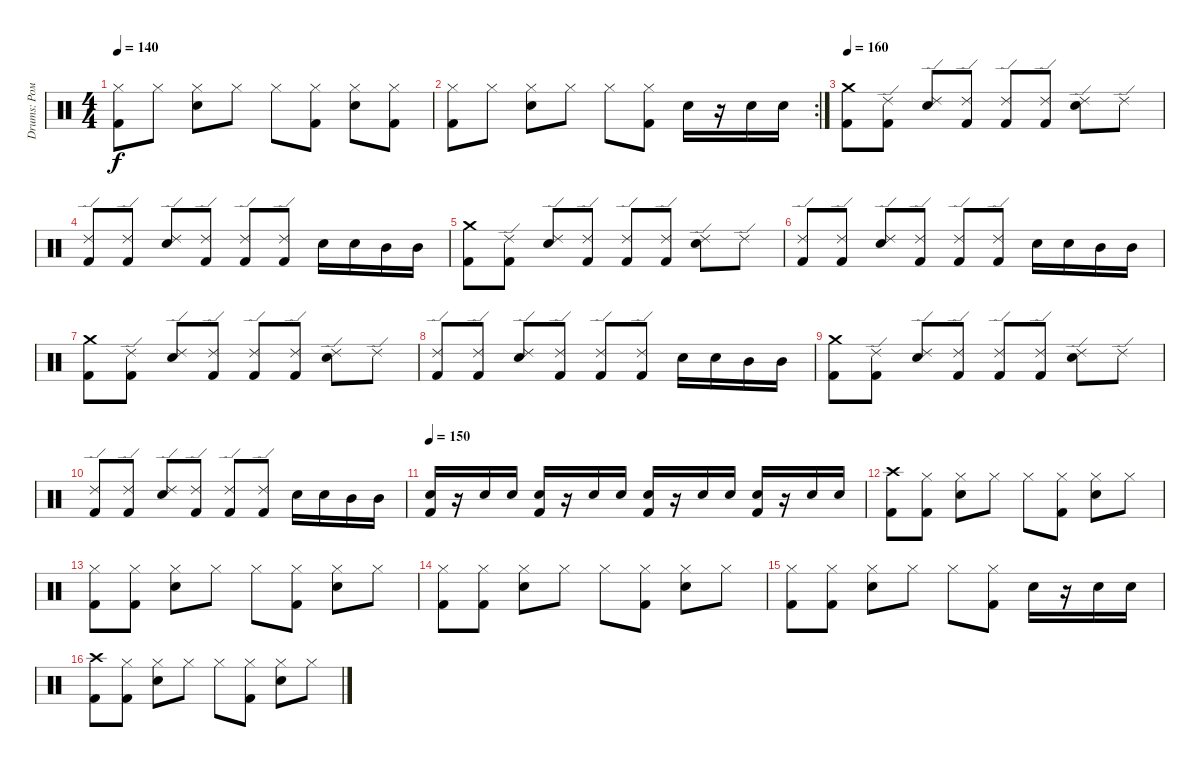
\track ("Drums: Рома" "Drums: Ром") {instrument percussion}
\staff {score}
\articulation defaults
\ts (4 4)
\tempo 140
\clef neutral
\ks c
("Hi-Hat (closed)" "Kick (hit) 2").8{dy f} "Hi-Hat (closed)".8 ("Hi-Hat (closed)" "Snare (hit) 2").8 "Hi-Hat (closed)".8 "Hi-Hat (closed)".8 ("Hi-Hat (closed)" "Kick (hit) 2").8 ("Hi-Hat (closed)" "Snare (hit) 2").8 ("Hi-Hat (closed)" "Kick (hit) 2").8 |
\rc 2
("Hi-Hat (closed)" "Kick (hit) 2").8 "Hi-Hat (closed)".8 ("Hi-Hat (closed)" "Snare (hit) 2").8 "Hi-Hat (closed)".8 "Hi-Hat (closed)".8 ("Hi-Hat (closed)" "Kick (hit) 2").8 "Snare (hit) 2".16 r.16 "Snare (hit) 2".16 "Snare (hit) 2".16 |
\tempo 160
("Crash medium (hit)" "Kick (hit) 2").8 ("Ride (edge) 2" "Kick (hit) 2").8 ("Ride (edge) 2" "Snare (hit) 2").8 ("Ride (edge) 2" "Kick (hit) 2").8 ("Ride (edge) 2" "Kick (hit) 2").8 ("Ride (edge) 2" "Kick (hit) 2").8 ("Ride (edge) 2" "Snare (hit) 2").8 "Ride (edge) 2".8 |
("Ride (edge) 2" "Kick (hit) 2").8 ("Ride (edge) 2" "Kick (hit) 2").8 ("Ride (edge) 2" "Snare (hit) 2").8 ("Ride (edge) 2" "Kick (hit) 2").8 ("Ride (edge) 2" "Kick (hit) 2").8 ("Ride (edge) 2" "Kick (hit) 2").8 "Snare (hit) 2".16 "Snare (hit) 2".16 "Mid Tom (hit)".16 "Mid Tom (hit)".16 |
("Crash medium (hit)" "Kick (hit) 2").8 ("Ride (edge) 2" "Kick (hit) 2").8 ("Ride (edge) 2" "Snare (hit) 2").8 ("Ride (edge) 2" "Kick (hit) 2").8 ("Ride (edge) 2" "Kick (hit) 2").8 ("Ride (edge) 2" "Kick (hit) 2").8 ("Ride (edge) 2" "Snare (hit) 2").8 "Ride (edge) 2".8 |
("Ride (edge) 2" "Kick (hit) 2").8 ("Ride (edge) 2" "Kick (hit) 2").8 ("Ride (edge) 2" "Snare (hit) 2").8 ("Ride (edge) 2" "Kick (hit) 2").8 ("Ride (edge) 2" "Kick (hit) 2").8 ("Ride (edge) 2" "Kick (hit) 2").8 "Snare (hit) 2".16 "Snare (hit) 2".16 "Mid Tom (hit)".16 "Mid Tom (hit)".16 |
("Crash medium (hit)" "Kick (hit) 2").8 ("Ride (edge) 2" "Kick (hit) 2").8 ("Ride (edge) 2" "Snare (hit) 2").8 ("Ride (edge) 2" "Kick (hit) 2").8 ("Ride (edge) 2" "Kick (hit) 2").8 ("Ride (edge) 2" "Kick (hit) 2").8 ("Ride (edge) 2" "Snare (hit) 2").8 "Ride (edge) 2".8 |
("Ride (edge) 2" "Kick (hit) 2").8 ("Ride (edge) 2" "Kick (hit) 2").8 ("Ride (edge) 2" "Snare (hit) 2").8 ("Ride (edge) 2" "Kick (hit) 2").8 ("Ride (edge) 2" "Kick (hit) 2").8 ("Ride (edge) 2" "Kick (hit) 2").8 "Snare (hit) 2".16 "Snare (hit) 2".16 "Mid Tom (hit)".16 "Mid Tom (hit)".16 |
("Crash medium (hit)" "Kick (hit) 2").8 ("Ride (edge) 2" "Kick (hit) 2").8 ("Ride (edge) 2" "Snare (hit) 2").8 ("Ride (edge) 2" "Kick (hit) 2").8 ("Ride (edge) 2" "Kick (hit) 2").8 ("Ride (edge) 2" "Kick (hit) 2").8 ("Ride (edge) 2" "Snare (hit) 2").8 "Ride (edge) 2".8 |
("Ride (edge) 2" "Kick (hit) 2").8 ("Ride (edge) 2" "Kick (hit) 2").8 ("Ride (edge) 2" "Snare (hit) 2").8 ("Ride (edge) 2" "Kick (hit) 2").8 ("Ride (edge) 2" "Kick (hit) 2").8 ("Ride (edge) 2" "Kick (hit) 2").8 "Snare (hit) 2".16 "Snare (hit) 2".16 "Mid Tom (hit)".16 "Mid Tom (hit)".16 |
\tempo 150
("Snare (hit) 2" "Kick (hit) 2").16 r.16 "Snare (hit) 2".16 "Snare (hit) 2".16 ("Snare (hit) 2" "Kick (hit) 2").16 r.16 "Snare (hit) 2".16 "Snare (hit) 2".16 ("Snare (hit) 2" "Kick (hit) 2").16 r.16 "Snare (hit) 2".16 "Snare (hit) 2".16 ("Snare (hit) 2" "Kick (hit) 2").16 r.16 "Snare (hit) 2".16 "Snare (hit) 2".16 |
("Crash high (hit)" "Kick (hit) 2").8 ("Hi-Hat (closed)" "Kick (hit) 2").8 ("Hi-Hat (closed)" "Snare (hit) 2").8 "Hi-Hat (closed)".8 "Hi-Hat (closed)".8 ("Hi-Hat (closed)" "Kick (hit) 2").8 ("Hi-Hat (closed)" "Snare (hit) 2").8 "Hi-Hat (closed)".8 |
("Hi-Hat (closed)" "Kick (hit) 2").8 ("Hi-Hat (closed)" "Kick (hit) 2").8 ("Hi-Hat (closed)" "Snare (hit) 2").8 "Hi-Hat (closed)".8 "Hi-Hat (closed)".8 ("Hi-Hat (closed)" "Kick (hit) 2").8 ("Hi-Hat (closed)" "Snare (hit) 2").8 "Hi-Hat (closed)".8 |
("Hi-Hat (closed)" "Kick (hit) 2").8 ("Hi-Hat (closed)" "Kick (hit) 2").8 ("Hi-Hat (closed)" "Snare (hit) 2").8 "Hi-Hat (closed)".8 "Hi-Hat (closed)".8 ("Hi-Hat (closed)" "Kick (hit) 2").8 ("Hi-Hat (closed)" "Snare (hit) 2").8 "Hi-Hat (closed)".8 |
("Hi-Hat (closed)" "Kick (hit) 2").8 ("Hi-Hat (closed)" "Kick (hit) 2").8 ("Hi-Hat (closed)" "Snare (hit) 2").8 "Hi-Hat (closed)".8 "Hi-Hat (closed)".8 ("Hi-Hat (closed)" "Kick (hit) 2").8 "Snare (hit) 2".16 r.16 "Snare (hit) 2".16 "Snare (hit) 2".16 |
("Crash high (hit)" "Kick (hit) 2").8 ("Hi-Hat (closed)" "Kick (hit) 2").8 ("Hi-Hat (closed)" "Snare (hit) 2").8 "Hi-Hat (closed)".8 "Hi-Hat (closed)".8 ("Hi-Hat (closed)" "Kick (hit) 2").8 ("Hi-Hat (closed)" "Snare (hit) 2").8 "Hi-Hat (closed)".8
